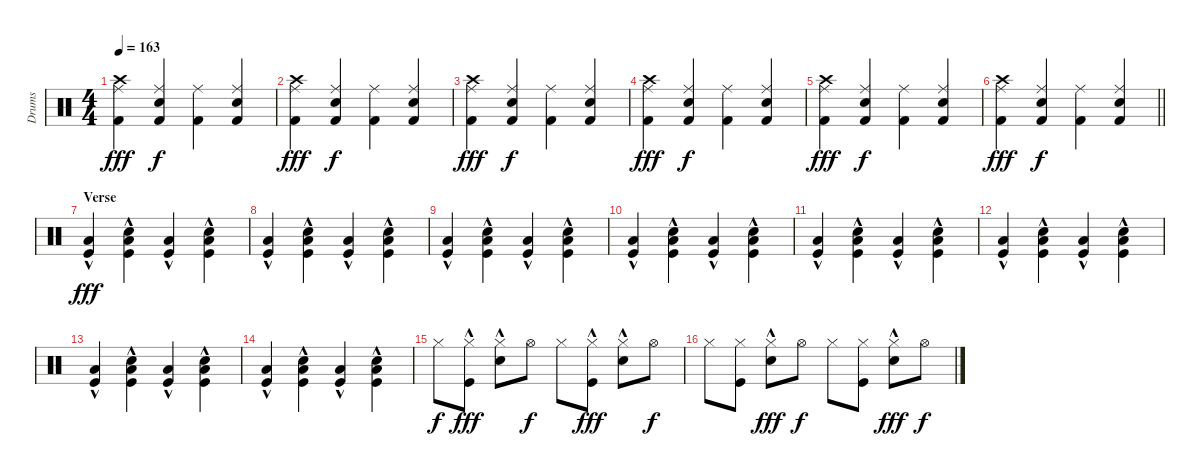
\track ("Drums" "Drums") {instrument percussion}
\staff {score}
\articulation defaults
\ts (4 4)
\tempo 163
\clef neutral
\ks c
("Kick (hit) 2" "Crash high (hit)" "Ride (middle)").4{dy fff} ("Kick (hit) 2" "Snare (hit) 2" "Ride (middle)").4{dy f} ("Kick (hit) 2" "Ride (middle)").4 ("Kick (hit) 2" "Snare (hit) 2" "Ride (middle)").4 |
("Kick (hit) 2" "Crash high (hit)" "Ride (middle)").4{dy fff} ("Kick (hit) 2" "Snare (hit) 2" "Ride (middle)").4{dy f} ("Kick (hit) 2" "Ride (middle)").4 ("Kick (hit) 2" "Snare (hit) 2" "Ride (middle)").4 |
("Kick (hit) 2" "Crash high (hit)" "Ride (middle)").4{dy fff} ("Kick (hit) 2" "Snare (hit) 2" "Ride (middle)").4{dy f} ("Kick (hit) 2" "Ride (middle)").4 ("Kick (hit) 2" "Snare (hit) 2" "Ride (middle)").4 |
("Kick (hit) 2" "Crash high (hit)" "Ride (middle)").4{dy fff} ("Kick (hit) 2" "Snare (hit) 2" "Ride (middle)").4{dy f} ("Kick (hit) 2" "Ride (middle)").4 ("Kick (hit) 2" "Snare (hit) 2" "Ride (middle)").4 |
("Kick (hit) 2" "Crash high (hit)" "Ride (middle)").4{dy fff} ("Kick (hit) 2" "Snare (hit) 2" "Ride (middle)").4{dy f} ("Kick (hit) 2" "Ride (middle)").4 ("Kick (hit) 2" "Snare (hit) 2" "Ride (middle)").4 |
\barLineRight lightlight
("Kick (hit) 2" "Crash high (hit)" "Ride (middle)").4{dy fff} ("Kick (hit) 2" "Snare (hit) 2" "Ride (middle)").4{dy f} ("Kick (hit) 2" "Ride (middle)").4 ("Kick (hit) 2" "Snare (hit) 2" "Ride (middle)").4 |
\section ("" "Verse")
("Kick (hit)"{hac} "Low Floor Tom (hit)").4{dy fff} ("Kick (hit)"{hac} "Low Floor Tom (hit)" "Snare (hit) 2"{hac}).4 ("Kick (hit)"{hac} "Low Floor Tom (hit)").4 ("Kick (hit)"{hac} "Low Floor Tom (hit)" "Snare (hit) 2"{hac}).4 |
("Kick (hit)"{hac} "Low Floor Tom (hit)").4 ("Kick (hit)"{hac} "Low Floor Tom (hit)" "Snare (hit) 2"{hac}).4 ("Kick (hit)"{hac} "Low Floor Tom (hit)").4 ("Kick (hit)"{hac} "Low Floor Tom (hit)" "Snare (hit) 2"{hac}).4 |
("Kick (hit)"{hac} "Low Floor Tom (hit)").4 ("Kick (hit)"{hac} "Low Floor Tom (hit)" "Snare (hit) 2"{hac}).4 ("Kick (hit)"{hac} "Low Floor Tom (hit)").4 ("Kick (hit)"{hac} "Low Floor Tom (hit)" "Snare (hit) 2"{hac}).4 |
("Kick (hit)"{hac} "Low Floor Tom (hit)").4 ("Kick (hit)"{hac} "Low Floor Tom (hit)" "Snare (hit) 2"{hac}).4 ("Kick (hit)"{hac} "Low Floor Tom (hit)").4 ("Kick (hit)"{hac} "Low Floor Tom (hit)" "Snare (hit) 2"{hac}).4 |
("Kick (hit)"{hac} "Low Floor Tom (hit)").4 ("Kick (hit)"{hac} "Low Floor Tom (hit)" "Snare (hit) 2"{hac}).4 ("Kick (hit)"{hac} "Low Floor Tom (hit)").4 ("Kick (hit)"{hac} "Low Floor Tom (hit)" "Snare (hit) 2"{hac}).4 |
("Kick (hit)"{hac} "Low Floor Tom (hit)").4 ("Kick (hit)"{hac} "Low Floor Tom (hit)" "Snare (hit) 2"{hac}).4 ("Kick (hit)"{hac} "Low Floor Tom (hit)").4 ("Kick (hit)"{hac} "Low Floor Tom (hit)" "Snare (hit) 2"{hac}).4 |
("Kick (hit)"{hac} "Low Floor Tom (hit)").4 ("Kick (hit)"{hac} "Low Floor Tom (hit)" "Snare (hit) 2"{hac}).4 ("Kick (hit)"{hac} "Low Floor Tom (hit)").4 ("Kick (hit)"{hac} "Low Floor Tom (hit)" "Snare (hit) 2"{hac}).4 |
("Kick (hit)"{hac} "Low Floor Tom (hit)").4 ("Kick (hit)"{hac} "Low Floor Tom (hit)" "Snare (hit) 2"{hac}).4 ("Kick (hit)"{hac} "Low Floor Tom (hit)").4 ("Kick (hit)"{hac} "Low Floor Tom (hit)" "Snare (hit) 2"{hac}).4 |
"Hi-Hat (closed)".8{dy f} ("Kick (hit)"{hac} "Hi-Hat (closed)").8{dy fff} ("Snare (hit) 2"{hac} "Hi-Hat (closed)").8 "Hi-Hat (open)".8{dy f} "Hi-Hat (closed)".8 ("Kick (hit)"{hac} "Hi-Hat (closed)").8{dy fff} ("Snare (hit) 2"{hac} "Hi-Hat (closed)").8 "Hi-Hat (open)".8{dy f} |
"Hi-Hat (closed)".8 ("Kick (hit)" "Hi-Hat (closed)").8 ("Snare (hit) 2"{hac} "Hi-Hat (closed)").8{dy fff} "Hi-Hat (open)".8{dy f} "Hi-Hat (closed)".8 ("Kick (hit)" "Hi-Hat (closed)").8 ("Snare (hit) 2"{hac} "Hi-Hat (closed)").8{dy fff} "Hi-Hat (open)".8{dy f}
